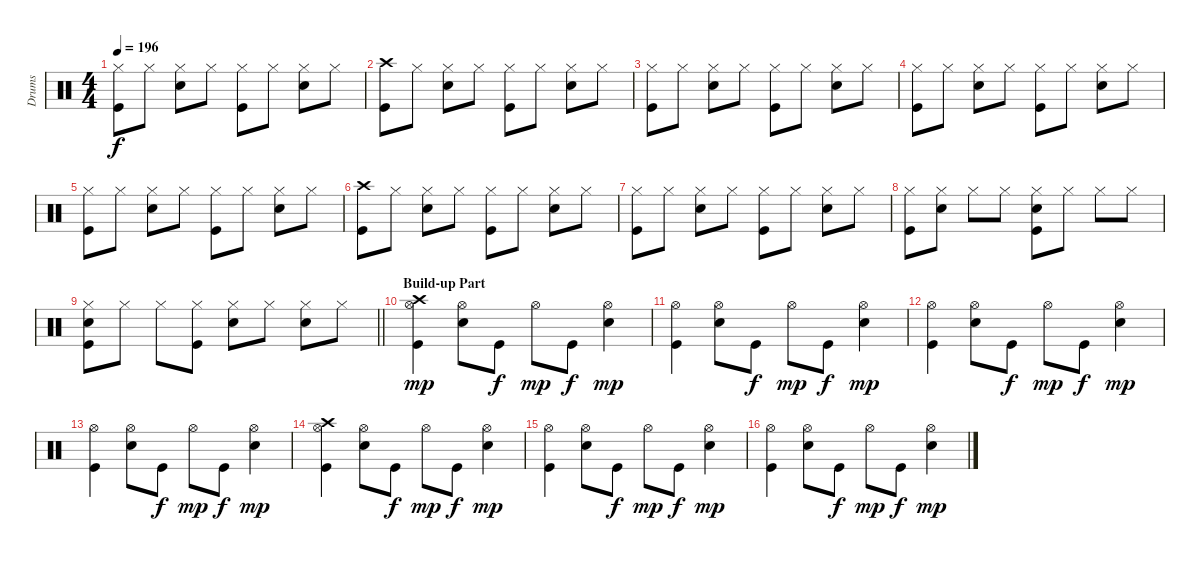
\track ("Drums" "Drums") {instrument percussion}
\staff {score}
\articulation defaults
\ts (4 4)
\tempo 196
\clef neutral
\ks c
("Hi-Hat (closed)" "Kick (hit)").8{dy f} "Hi-Hat (closed)".8 ("Hi-Hat (closed)" "Electric Snare (hit)").8 "Hi-Hat (closed)".8 ("Hi-Hat (closed)" "Kick (hit)").8 "Hi-Hat (closed)".8 ("Hi-Hat (closed)" "Electric Snare (hit)").8 "Hi-Hat (closed)".8 |
("Crash high (hit)" "Kick (hit)").8 "Hi-Hat (closed)".8 ("Hi-Hat (closed)" "Electric Snare (hit)").8 "Hi-Hat (closed)".8 ("Hi-Hat (closed)" "Kick (hit)").8 "Hi-Hat (closed)".8 ("Hi-Hat (closed)" "Electric Snare (hit)").8 "Hi-Hat (closed)".8 |
("Hi-Hat (closed)" "Kick (hit)").8 "Hi-Hat (closed)".8 ("Hi-Hat (closed)" "Electric Snare (hit)").8 "Hi-Hat (closed)".8 ("Hi-Hat (closed)" "Kick (hit)").8 "Hi-Hat (closed)".8 ("Hi-Hat (closed)" "Electric Snare (hit)").8 "Hi-Hat (closed)".8 |
("Hi-Hat (closed)" "Kick (hit)").8 "Hi-Hat (closed)".8 ("Hi-Hat (closed)" "Electric Snare (hit)").8 "Hi-Hat (closed)".8 ("Hi-Hat (closed)" "Kick (hit)").8 "Hi-Hat (closed)".8 ("Hi-Hat (closed)" "Electric Snare (hit)").8 "Hi-Hat (closed)".8 |
("Hi-Hat (closed)" "Kick (hit)").8 "Hi-Hat (closed)".8 ("Hi-Hat (closed)" "Electric Snare (hit)").8 "Hi-Hat (closed)".8 ("Hi-Hat (closed)" "Kick (hit)").8 "Hi-Hat (closed)".8 ("Hi-Hat (closed)" "Electric Snare (hit)").8 "Hi-Hat (closed)".8 |
("Crash high (hit)" "Kick (hit)").8 "Hi-Hat (closed)".8 ("Hi-Hat (closed)" "Electric Snare (hit)").8 "Hi-Hat (closed)".8 ("Hi-Hat (closed)" "Kick (hit)").8 "Hi-Hat (closed)".8 ("Hi-Hat (closed)" "Electric Snare (hit)").8 "Hi-Hat (closed)".8 |
("Hi-Hat (closed)" "Kick (hit)").8 "Hi-Hat (closed)".8 ("Hi-Hat (closed)" "Electric Snare (hit)").8 "Hi-Hat (closed)".8 ("Hi-Hat (closed)" "Kick (hit)").8 "Hi-Hat (closed)".8 ("Hi-Hat (closed)" "Electric Snare (hit)").8 "Hi-Hat (closed)".8 |
("Hi-Hat (closed)" "Kick (hit)").8 ("Hi-Hat (closed)" "Electric Snare (hit)").8 "Hi-Hat (closed)".8 "Hi-Hat (closed)".8 ("Hi-Hat (closed)" "Electric Snare (hit)" "Kick (hit)").8 "Hi-Hat (closed)".8 "Hi-Hat (closed)".8 "Hi-Hat (closed)".8 |
\barLineRight lightlight
("Hi-Hat (closed)" "Electric Snare (hit)" "Kick (hit)").8 "Hi-Hat (closed)".8 "Hi-Hat (closed)".8 ("Hi-Hat (closed)" "Kick (hit)").8 ("Hi-Hat (closed)" "Electric Snare (hit)").8 "Hi-Hat (closed)".8 ("Hi-Hat (closed)" "Electric Snare (hit)").8 "Hi-Hat (closed)".8 |
\section ("" "Build-up Part")
("Crash high (hit)" "Hi-Hat (open)" "Kick (hit)").4{dy mp} ("Hi-Hat (open)" "Electric Snare (hit)").8 "Kick (hit)".8{dy f} "Hi-Hat (open)".8{dy mp} "Kick (hit)".8{dy f} ("Hi-Hat (open)" "Electric Snare (hit)").4{dy mp} |
("Hi-Hat (open)" "Kick (hit)").4 ("Hi-Hat (open)" "Electric Snare (hit)").8 "Kick (hit)".8{dy f} "Hi-Hat (open)".8{dy mp} "Kick (hit)".8{dy f} ("Hi-Hat (open)" "Electric Snare (hit)").4{dy mp} |
("Hi-Hat (open)" "Kick (hit)").4 ("Hi-Hat (open)" "Electric Snare (hit)").8 "Kick (hit)".8{dy f} "Hi-Hat (open)".8{dy mp} "Kick (hit)".8{dy f} ("Hi-Hat (open)" "Electric Snare (hit)").4{dy mp} |
("Hi-Hat (open)" "Kick (hit)").4 ("Hi-Hat (open)" "Electric Snare (hit)").8 "Kick (hit)".8{dy f} "Hi-Hat (open)".8{dy mp} "Kick (hit)".8{dy f} ("Hi-Hat (open)" "Electric Snare (hit)").4{dy mp} |
("Crash high (hit)" "Hi-Hat (open)" "Kick (hit)").4 ("Hi-Hat (open)" "Electric Snare (hit)").8 "Kick (hit)".8{dy f} "Hi-Hat (open)".8{dy mp} "Kick (hit)".8{dy f} ("Hi-Hat (open)" "Electric Snare (hit)").4{dy mp} |
("Hi-Hat (open)" "Kick (hit)").4 ("Hi-Hat (open)" "Electric Snare (hit)").8 "Kick (hit)".8{dy f} "Hi-Hat (open)".8{dy mp} "Kick (hit)".8{dy f} ("Hi-Hat (open)" "Electric Snare (hit)").4{dy mp} |
("Hi-Hat (open)" "Kick (hit)").4 ("Hi-Hat (open)" "Electric Snare (hit)").8 "Kick (hit)".8{dy f} "Hi-Hat (open)".8{dy mp} "Kick (hit)".8{dy f} ("Hi-Hat (open)" "Electric Snare (hit)").4{dy mp}
